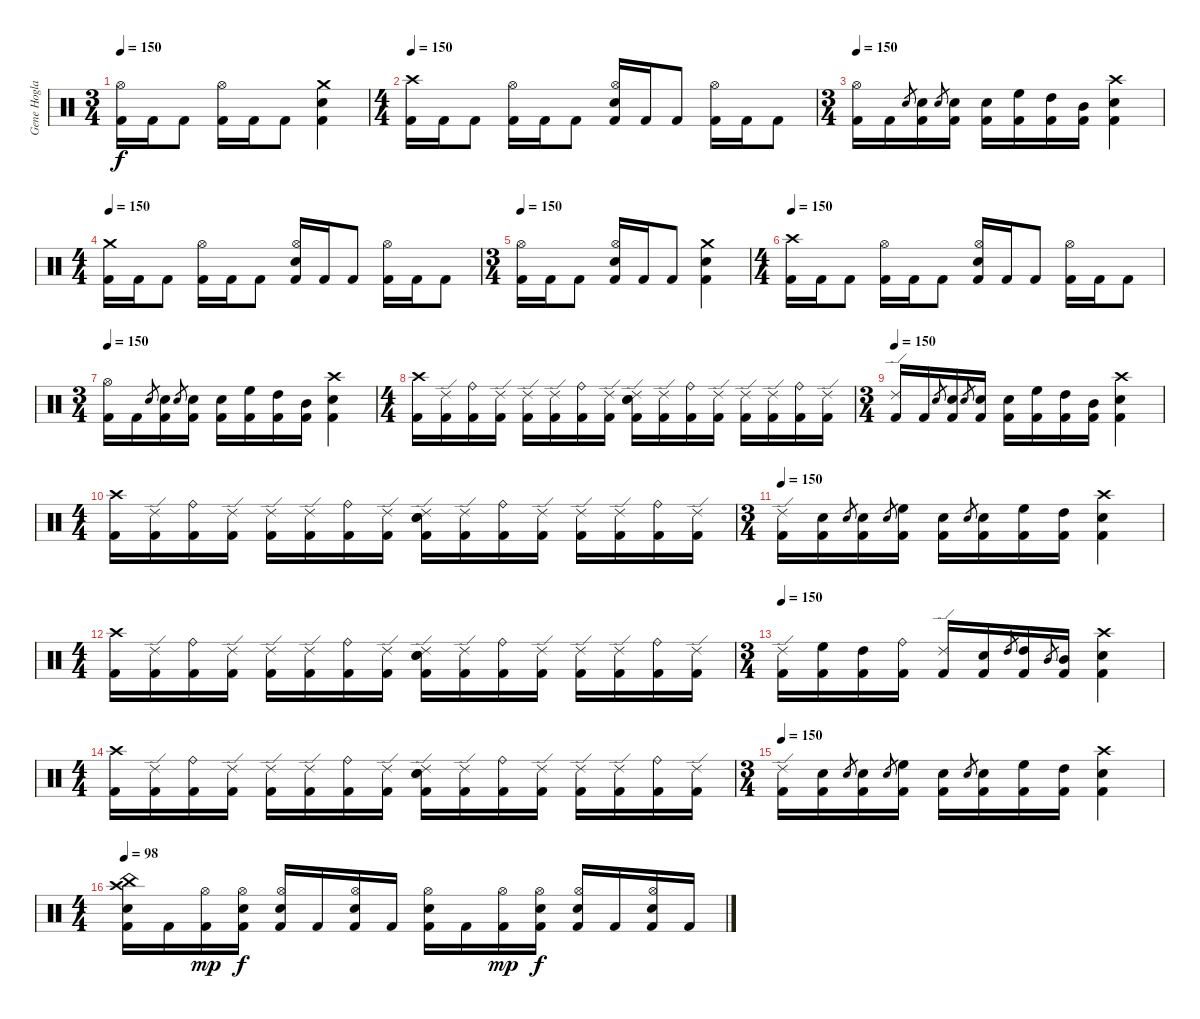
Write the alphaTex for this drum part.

\track ("Gene Hoglan" "Gene Hogla") {instrument percussion}
\staff {score}
\articulation defaults
\ts (3 4)
\tempo 150
\clef neutral
\ks c
("Kick (hit) 2" "Hi-Hat (open)").16{dy f} "Kick (hit) 2".16 "Kick (hit) 2".8 ("Kick (hit) 2" "Hi-Hat (open)").16 "Kick (hit) 2".16 "Kick (hit) 2".8 ("Kick (hit) 2" "Electric Snare (hit)" "Crash medium (hit)").4 |
\ts (4 4)
\tempo 150
("Kick (hit) 2" "Crash high (hit)").16 "Kick (hit) 2".16 "Kick (hit) 2".8 ("Kick (hit) 2" "Hi-Hat (open)").16 "Kick (hit) 2".16 "Kick (hit) 2".8 ("Kick (hit) 2" "Electric Snare (hit)" "Hi-Hat (open)").16 "Kick (hit) 2".16 "Kick (hit) 2".8 ("Kick (hit) 2" "Hi-Hat (open)").16 "Kick (hit) 2".16 "Kick (hit) 2".8 |
\ts (3 4)
\tempo 150
("Kick (hit) 2" "Hi-Hat (open)").16 "Kick (hit) 2".16 "Electric Snare (hit)".8{gr} ("Kick (hit) 2" "Electric Snare (hit)").16 "Electric Snare (hit)".8{gr} ("Kick (hit) 2" "Electric Snare (hit)").16 ("Kick (hit) 2" "Electric Snare (hit)").16 ("Kick (hit) 2" "High Floor Tom (hit)").16 ("Kick (hit) 2" "High Tom (hit)").16 ("Kick (hit) 2" "Mid Tom (hit)").16 ("Kick (hit) 2" "Electric Snare (hit)" "Crash high (hit)").4 |
\ts (4 4)
\tempo 150
("Kick (hit) 2" "Crash medium (hit)").16 "Kick (hit) 2".16 "Kick (hit) 2".8 ("Kick (hit) 2" "Hi-Hat (open)").16 "Kick (hit) 2".16 "Kick (hit) 2".8 ("Kick (hit) 2" "Electric Snare (hit)" "Hi-Hat (open)").16 "Kick (hit) 2".16 "Kick (hit) 2".8 ("Kick (hit) 2" "Hi-Hat (open)").16 "Kick (hit) 2".16 "Kick (hit) 2".8 |
\ts (3 4)
\tempo 150
("Kick (hit) 2" "Hi-Hat (open)").16 "Kick (hit) 2".16 "Kick (hit) 2".8 ("Kick (hit) 2" "Electric Snare (hit)" "Hi-Hat (open)").16 "Kick (hit) 2".16 "Kick (hit) 2".8 ("Kick (hit) 2" "Electric Snare (hit)" "Crash medium (hit)").4 |
\ts (4 4)
\tempo 150
("Kick (hit) 2" "Crash high (hit)").16 "Kick (hit) 2".16 "Kick (hit) 2".8 ("Kick (hit) 2" "Hi-Hat (open)").16 "Kick (hit) 2".16 "Kick (hit) 2".8 ("Kick (hit) 2" "Electric Snare (hit)" "Hi-Hat (open)").16 "Kick (hit) 2".16 "Kick (hit) 2".8 ("Kick (hit) 2" "Hi-Hat (open)").16 "Kick (hit) 2".16 "Kick (hit) 2".8 |
\ts (3 4)
\tempo 150
("Kick (hit) 2" "Hi-Hat (open)").16 "Kick (hit) 2".16 "Electric Snare (hit)".8{gr} ("Kick (hit) 2" "Electric Snare (hit)").16 "Electric Snare (hit)".8{gr} ("Kick (hit) 2" "Electric Snare (hit)").16 ("Kick (hit) 2" "Electric Snare (hit)").16 ("Kick (hit) 2" "High Floor Tom (hit)").16 ("Kick (hit) 2" "High Tom (hit)").16 ("Kick (hit) 2" "Mid Tom (hit)").16 ("Kick (hit) 2" "Electric Snare (hit)" "Crash high (hit)").4 |
\ts (4 4)
("Kick (hit) 2" "Crash high (hit)").16 ("Kick (hit) 2" "Ride (edge) 2").16 ("Kick (hit) 2" "Ride (bell)").16 ("Kick (hit) 2" "Ride (edge) 2").16 ("Kick (hit) 2" "Ride (edge) 2").16 ("Kick (hit) 2" "Ride (edge) 2").16 ("Kick (hit) 2" "Ride (bell)").16 ("Kick (hit) 2" "Ride (edge) 2").16 ("Kick (hit) 2" "Electric Snare (hit)" "Electric Snare (hit)" "Ride (edge) 2").16 ("Kick (hit) 2" "Ride (edge) 2").16 ("Kick (hit) 2" "Ride (bell)").16 ("Kick (hit) 2" "Ride (edge) 2").16 ("Kick (hit) 2" "Ride (edge) 2").16 ("Kick (hit) 2" "Ride (edge) 2").16 ("Kick (hit) 2" "Ride (bell)").16 ("Kick (hit) 2" "Ride (edge) 2").16 |
\ts (3 4)
\tempo 150
("Kick (hit) 2" "Ride (edge) 2").16 "Kick (hit) 2".16 "Electric Snare (hit)".8{gr} ("Kick (hit) 2" "Electric Snare (hit)").16 "Electric Snare (hit)".8{gr} ("Kick (hit) 2" "Electric Snare (hit)").16 ("Kick (hit) 2" "Electric Snare (hit)").16 ("Kick (hit) 2" "High Floor Tom (hit)").16 ("Kick (hit) 2" "High Tom (hit)").16 ("Kick (hit) 2" "Mid Tom (hit)").16 ("Kick (hit) 2" "Electric Snare (hit)" "Crash high (hit)").4 |
\ts (4 4)
("Kick (hit) 2" "Crash high (hit)").16 ("Kick (hit) 2" "Ride (edge) 2").16 ("Kick (hit) 2" "Ride (bell)").16 ("Kick (hit) 2" "Ride (edge) 2").16 ("Kick (hit) 2" "Ride (edge) 2").16 ("Kick (hit) 2" "Ride (edge) 2").16 ("Kick (hit) 2" "Ride (bell)").16 ("Kick (hit) 2" "Ride (edge) 2").16 ("Kick (hit) 2" "Electric Snare (hit)" "Electric Snare (hit)" "Ride (edge) 2").16 ("Kick (hit) 2" "Ride (edge) 2").16 ("Kick (hit) 2" "Ride (bell)").16 ("Kick (hit) 2" "Ride (edge) 2").16 ("Kick (hit) 2" "Ride (edge) 2").16 ("Kick (hit) 2" "Ride (edge) 2").16 ("Kick (hit) 2" "Ride (bell)").16 ("Kick (hit) 2" "Ride (edge) 2").16 |
\ts (3 4)
\tempo 150
("Kick (hit) 2" "Ride (edge) 2").16 ("Kick (hit) 2" "Electric Snare (hit)").16 "Electric Snare (hit)".8{gr} ("Kick (hit) 2" "Electric Snare (hit)").16 "Electric Snare (hit)".8{gr} ("Kick (hit) 2" "High Floor Tom (hit)").16 ("Kick (hit) 2" "Electric Snare (hit)").16 "Electric Snare (hit)".8{gr} ("Kick (hit) 2" "Electric Snare (hit)").16 ("Kick (hit) 2" "High Floor Tom (hit)").16 ("Kick (hit) 2" "High Tom (hit)").16 ("Kick (hit) 2" "Electric Snare (hit)" "Crash high (hit)").4 |
\ts (4 4)
("Kick (hit) 2" "Crash high (hit)").16 ("Kick (hit) 2" "Ride (edge) 2").16 ("Kick (hit) 2" "Ride (bell)").16 ("Kick (hit) 2" "Ride (edge) 2").16 ("Kick (hit) 2" "Ride (edge) 2").16 ("Kick (hit) 2" "Ride (edge) 2").16 ("Kick (hit) 2" "Ride (bell)").16 ("Kick (hit) 2" "Ride (edge) 2").16 ("Kick (hit) 2" "Electric Snare (hit)" "Electric Snare (hit)" "Ride (edge) 2").16 ("Kick (hit) 2" "Ride (edge) 2").16 ("Kick (hit) 2" "Ride (bell)").16 ("Kick (hit) 2" "Ride (edge) 2").16 ("Kick (hit) 2" "Ride (edge) 2").16 ("Kick (hit) 2" "Ride (edge) 2").16 ("Kick (hit) 2" "Ride (bell)").16 ("Kick (hit) 2" "Ride (edge) 2").16 |
\ts (3 4)
\tempo 150
("Kick (hit) 2" "Ride (edge) 2").16 ("Kick (hit) 2" "High Floor Tom (hit)").16 ("Kick (hit) 2" "High Tom (hit)").16 ("Kick (hit) 2" "Ride (bell)").16 ("Kick (hit) 2" "Ride (edge) 2").16 ("Kick (hit) 2" "Electric Snare (hit)").16 "High Tom (hit)".8{gr} ("Kick (hit) 2" "High Tom (hit)").16 "Mid Tom (hit)".8{gr} ("Kick (hit) 2" "Mid Tom (hit)").16 ("Kick (hit) 2" "Electric Snare (hit)" "Crash high (hit)").4 |
\ts (4 4)
("Kick (hit) 2" "Crash high (hit)").16 ("Kick (hit) 2" "Ride (edge) 2").16 ("Kick (hit) 2" "Ride (bell)").16 ("Kick (hit) 2" "Ride (edge) 2").16 ("Kick (hit) 2" "Ride (edge) 2").16 ("Kick (hit) 2" "Ride (edge) 2").16 ("Kick (hit) 2" "Ride (bell)").16 ("Kick (hit) 2" "Ride (edge) 2").16 ("Kick (hit) 2" "Electric Snare (hit)" "Electric Snare (hit)" "Ride (edge) 2").16 ("Kick (hit) 2" "Ride (edge) 2").16 ("Kick (hit) 2" "Ride (bell)").16 ("Kick (hit) 2" "Ride (edge) 2").16 ("Kick (hit) 2" "Ride (edge) 2").16 ("Kick (hit) 2" "Ride (edge) 2").16 ("Kick (hit) 2" "Ride (bell)").16 ("Kick (hit) 2" "Ride (edge) 2").16 |
\ts (3 4)
\tempo 150
("Kick (hit) 2" "Ride (edge) 2").16 ("Kick (hit) 2" "Electric Snare (hit)").16 "Electric Snare (hit)".8{gr} ("Kick (hit) 2" "Electric Snare (hit)").16 "Electric Snare (hit)".8{gr} ("Kick (hit) 2" "High Floor Tom (hit)").16 ("Kick (hit) 2" "Electric Snare (hit)").16 "Electric Snare (hit)".8{gr} ("Kick (hit) 2" "Electric Snare (hit)").16 ("Kick (hit) 2" "High Floor Tom (hit)").16 ("Kick (hit) 2" "High Tom (hit)").16 ("Kick (hit) 2" "Electric Snare (hit)" "Crash high (hit)").4 |
\ts (4 4)
\tempo 98
("Kick (hit) 2" "Electric Snare (hit)" "Crash high (hit)" "China (hit)").16 "Kick (hit) 2".16 ("Kick (hit) 2" "Hi-Hat (open)").16{dy mp} ("Kick (hit) 2" "Electric Snare (hit)" "Hi-Hat (open)").16{dy f} ("Kick (hit) 2" "Electric Snare (hit)" "Hi-Hat (open)").16 "Kick (hit) 2".16 ("Kick (hit) 2" "Electric Snare (hit)" "Hi-Hat (open)").16 "Kick (hit) 2".16 ("Kick (hit) 2" "Electric Snare (hit)" "Hi-Hat (open)").16 "Kick (hit) 2".16 ("Kick (hit) 2" "Hi-Hat (open)").16{dy mp} ("Kick (hit) 2" "Electric Snare (hit)" "Hi-Hat (open)").16{dy f} ("Kick (hit) 2" "Electric Snare (hit)" "Hi-Hat (open)").16 "Kick (hit) 2".16 ("Kick (hit) 2" "Electric Snare (hit)" "Hi-Hat (open)").16 "Kick (hit) 2".16
